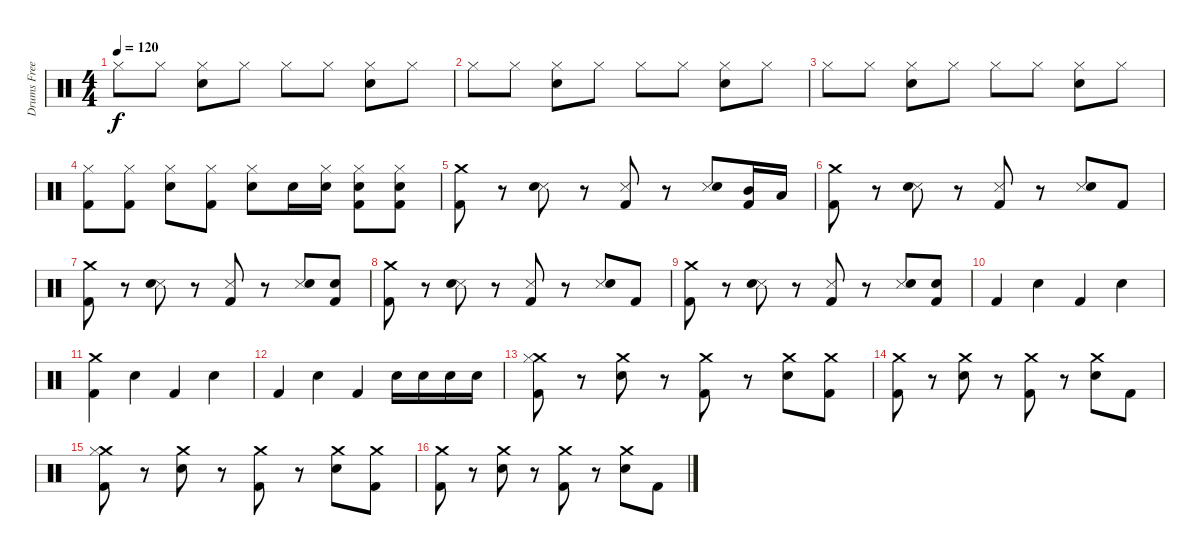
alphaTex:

\track ("Drums Freese" "Drums Free") {instrument percussion}
\staff {score}
\articulation defaults
\ts (4 4)
\tempo 120
\clef neutral
\ks c "Hi-Hat (closed)".8{dy f} "Hi-Hat (closed)".8
("Hi-Hat (closed)" "Snare (hit) 2").8 "Hi-Hat (closed)".8 "Hi-Hat (closed)".8 "Hi-Hat (closed)".8 ("Hi-Hat (closed)" "Snare (hit) 2").8 "Hi-Hat (closed)".8 |
"Hi-Hat (closed)".8 "Hi-Hat (closed)".8 ("Hi-Hat (closed)" "Snare (hit) 2").8 "Hi-Hat (closed)".8 "Hi-Hat (closed)".8 "Hi-Hat (closed)".8 ("Hi-Hat (closed)" "Snare (hit) 2").8 "Hi-Hat (closed)".8 |
"Hi-Hat (closed)".8 "Hi-Hat (closed)".8 ("Hi-Hat (closed)" "Snare (hit) 2").8 "Hi-Hat (closed)".8 "Hi-Hat (closed)".8 "Hi-Hat (closed)".8 ("Hi-Hat (closed)" "Snare (hit) 2").8 "Hi-Hat (closed)".8 |
("Hi-Hat (closed)" "Kick (hit) 2").8 ("Hi-Hat (closed)" "Kick (hit) 2").8 ("Hi-Hat (closed)" "Snare (hit) 2").8 ("Hi-Hat (closed)" "Kick (hit) 2").8 ("Hi-Hat (closed)" "Snare (hit) 2").8 "Snare (hit) 2".16 ("Hi-Hat (closed)" "Snare (hit) 2").16 ("Hi-Hat (closed)" "Snare (hit) 2" "Kick (hit) 2").8 ("Hi-Hat (closed)" "Snare (hit) 2" "Kick (hit) 2").8 |
("Crash medium (hit)" "Kick (hit) 2").8 r.8 ("Snare (side stick) 3" "Snare (hit) 2").8 r.8 ("Snare (side stick) 3" "Kick (hit) 2").8 r.8 ("Snare (side stick) 3" "Snare (hit) 2").8 ("Mid Tom (hit)" "Kick (hit) 2").16 "Low Tom (hit)".16 |
("Crash medium (hit)" "Kick (hit) 2").8 r.8 ("Snare (side stick) 3" "Snare (hit) 2").8 r.8 ("Snare (side stick) 3" "Kick (hit) 2").8 r.8 ("Snare (side stick) 3" "Snare (hit) 2").8 "Kick (hit) 2".8 |
("Crash medium (hit)" "Kick (hit) 2").8 r.8 ("Snare (side stick) 3" "Snare (hit) 2").8 r.8 ("Snare (side stick) 3" "Kick (hit) 2").8 r.8 ("Snare (side stick) 3" "Snare (hit) 2").8 ("Snare (hit) 2" "Kick (hit) 2").8 |
("Crash medium (hit)" "Kick (hit) 2").8 r.8 ("Snare (side stick) 3" "Snare (hit) 2").8 r.8 ("Snare (side stick) 3" "Kick (hit) 2").8 r.8 ("Snare (side stick) 3" "Snare (hit) 2").8 "Kick (hit) 2".8 |
("Crash medium (hit)" "Kick (hit) 2").8 r.8 ("Snare (side stick) 3" "Snare (hit) 2").8 r.8 ("Snare (side stick) 3" "Kick (hit) 2").8 r.8 ("Snare (side stick) 3" "Snare (hit) 2").8 ("Snare (hit) 2" "Kick (hit) 2").8 |
"Kick (hit) 2".4 "Snare (hit) 2".4 "Kick (hit) 2".4 "Snare (hit) 2".4 |
("Crash medium (hit)" "Kick (hit) 2").4 "Snare (hit) 2".4 "Kick (hit) 2".4 "Snare (hit) 2".4 |
"Kick (hit) 2".4 "Snare (hit) 2".4 "Kick (hit) 2".4 "Snare (hit) 2".16 "Snare (hit) 2".16 "Snare (hit) 2".16 "Snare (hit) 2".16 |
("Crash medium (hit)" "Hi-Hat (closed)" "Kick (hit) 2").8 r.8 ("Crash medium (hit)" "Snare (hit) 2").8 r.8 ("Crash medium (hit)" "Kick (hit) 2").8 r.8 ("Crash medium (hit)" "Snare (hit) 2").8 ("Crash medium (hit)" "Kick (hit) 2").8 |
("Crash medium (hit)" "Kick (hit) 2").8 r.8 ("Crash medium (hit)" "Snare (hit) 2").8 r.8 ("Crash medium (hit)" "Kick (hit) 2").8 r.8 ("Crash medium (hit)" "Snare (hit) 2").8 "Kick (hit) 2".8 |
("Crash medium (hit)" "Hi-Hat (closed)" "Kick (hit) 2").8 r.8 ("Crash medium (hit)" "Snare (hit) 2").8 r.8 ("Crash medium (hit)" "Kick (hit) 2").8 r.8 ("Crash medium (hit)" "Snare (hit) 2").8 ("Crash medium (hit)" "Kick (hit) 2").8 |
("Crash medium (hit)" "Kick (hit) 2").8 r.8 ("Crash medium (hit)" "Snare (hit) 2").8 r.8 ("Crash medium (hit)" "Kick (hit) 2").8 r.8 ("Crash medium (hit)" "Snare (hit) 2").8 "Kick (hit) 2".8
